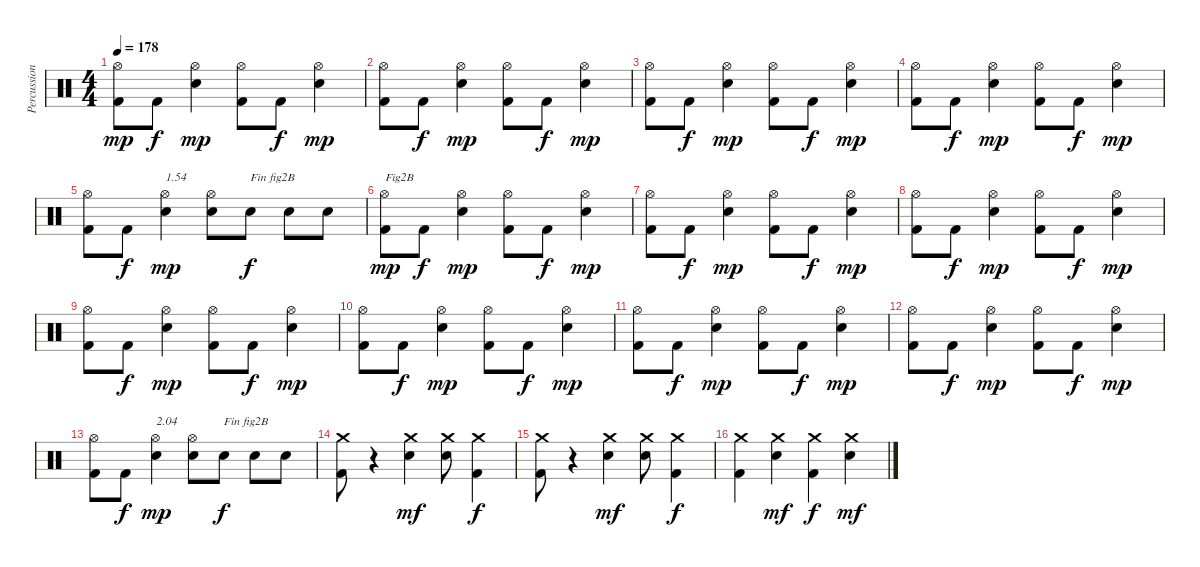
\track ("Percussions" "Percussion") {instrument percussion}
\staff {score}
\articulation defaults
\ts (4 4)
\tempo 178
\clef neutral
\ks c
("Kick (hit) 2" "Hi-Hat (open)").8{dy mp} "Kick (hit) 2".8{dy f} ("Electric Snare (hit)" "Hi-Hat (open)").4{dy mp} ("Kick (hit) 2" "Hi-Hat (open)").8 "Kick (hit) 2".8{dy f} ("Electric Snare (hit)" "Hi-Hat (open)").4{dy mp} |
("Kick (hit) 2" "Hi-Hat (open)").8 "Kick (hit) 2".8{dy f} ("Electric Snare (hit)" "Hi-Hat (open)").4{dy mp} ("Kick (hit) 2" "Hi-Hat (open)").8 "Kick (hit) 2".8{dy f} ("Electric Snare (hit)" "Hi-Hat (open)").4{dy mp} |
("Kick (hit) 2" "Hi-Hat (open)").8 "Kick (hit) 2".8{dy f} ("Electric Snare (hit)" "Hi-Hat (open)").4{dy mp} ("Kick (hit) 2" "Hi-Hat (open)").8 "Kick (hit) 2".8{dy f} ("Electric Snare (hit)" "Hi-Hat (open)").4{dy mp} |
("Kick (hit) 2" "Hi-Hat (open)").8 "Kick (hit) 2".8{dy f} ("Electric Snare (hit)" "Hi-Hat (open)").4{dy mp} ("Kick (hit) 2" "Hi-Hat (open)").8 "Kick (hit) 2".8{dy f} ("Electric Snare (hit)" "Hi-Hat (open)").4{dy mp} |
("Kick (hit) 2" "Hi-Hat (open)").8 "Kick (hit) 2".8{dy f} ("Electric Snare (hit)" "Hi-Hat (open)").4{txt "1.54" dy mp} ("Electric Snare (hit)" "Hi-Hat (open)").8 "Electric Snare (hit)".8{txt "Fin fig2B" dy f} "Electric Snare (hit)".8 "Electric Snare (hit)".8 |
("Kick (hit) 2" "Hi-Hat (open)").8{txt "Fig2B" dy mp} "Kick (hit) 2".8{dy f} ("Electric Snare (hit)" "Hi-Hat (open)").4{dy mp} ("Kick (hit) 2" "Hi-Hat (open)").8 "Kick (hit) 2".8{dy f} ("Electric Snare (hit)" "Hi-Hat (open)").4{dy mp} |
("Kick (hit) 2" "Hi-Hat (open)").8 "Kick (hit) 2".8{dy f} ("Electric Snare (hit)" "Hi-Hat (open)").4{dy mp} ("Kick (hit) 2" "Hi-Hat (open)").8 "Kick (hit) 2".8{dy f} ("Electric Snare (hit)" "Hi-Hat (open)").4{dy mp} |
("Kick (hit) 2" "Hi-Hat (open)").8 "Kick (hit) 2".8{dy f} ("Electric Snare (hit)" "Hi-Hat (open)").4{dy mp} ("Kick (hit) 2" "Hi-Hat (open)").8 "Kick (hit) 2".8{dy f} ("Electric Snare (hit)" "Hi-Hat (open)").4{dy mp} |
("Kick (hit) 2" "Hi-Hat (open)").8 "Kick (hit) 2".8{dy f} ("Electric Snare (hit)" "Hi-Hat (open)").4{dy mp} ("Kick (hit) 2" "Hi-Hat (open)").8 "Kick (hit) 2".8{dy f} ("Electric Snare (hit)" "Hi-Hat (open)").4{dy mp} |
("Kick (hit) 2" "Hi-Hat (open)").8 "Kick (hit) 2".8{dy f} ("Electric Snare (hit)" "Hi-Hat (open)").4{dy mp} ("Kick (hit) 2" "Hi-Hat (open)").8 "Kick (hit) 2".8{dy f} ("Electric Snare (hit)" "Hi-Hat (open)").4{dy mp} |
("Kick (hit) 2" "Hi-Hat (open)").8 "Kick (hit) 2".8{dy f} ("Electric Snare (hit)" "Hi-Hat (open)").4{dy mp} ("Kick (hit) 2" "Hi-Hat (open)").8 "Kick (hit) 2".8{dy f} ("Electric Snare (hit)" "Hi-Hat (open)").4{dy mp} |
("Kick (hit) 2" "Hi-Hat (open)").8 "Kick (hit) 2".8{dy f} ("Electric Snare (hit)" "Hi-Hat (open)").4{dy mp} ("Kick (hit) 2" "Hi-Hat (open)").8 "Kick (hit) 2".8{dy f} ("Electric Snare (hit)" "Hi-Hat (open)").4{dy mp} |
("Kick (hit) 2" "Hi-Hat (open)").8 "Kick (hit) 2".8{dy f} ("Electric Snare (hit)" "Hi-Hat (open)").4{txt "2.04" dy mp} ("Electric Snare (hit)" "Hi-Hat (open)").8 "Electric Snare (hit)".8{txt "Fin fig2B" dy f} "Electric Snare (hit)".8 "Electric Snare (hit)".8 |
("Kick (hit) 2" "Crash medium (hit)").8 r.4 ("Electric Snare (hit)" "Crash medium (hit)").4{dy mf} ("Electric Snare (hit)" "Crash medium (hit)").8 ("Kick (hit) 2" "Crash medium (hit)").4{dy f} |
("Kick (hit) 2" "Crash medium (hit)").8 r.4 ("Electric Snare (hit)" "Crash medium (hit)").4{dy mf} ("Electric Snare (hit)" "Crash medium (hit)").8 ("Kick (hit) 2" "Crash medium (hit)").4{dy f} |
("Kick (hit) 2" "Crash medium (hit)").4 ("Electric Snare (hit)" "Crash medium (hit)").4{dy mf} ("Kick (hit) 2" "Crash medium (hit)").4{dy f} ("Electric Snare (hit)" "Crash medium (hit)").4{dy mf}
